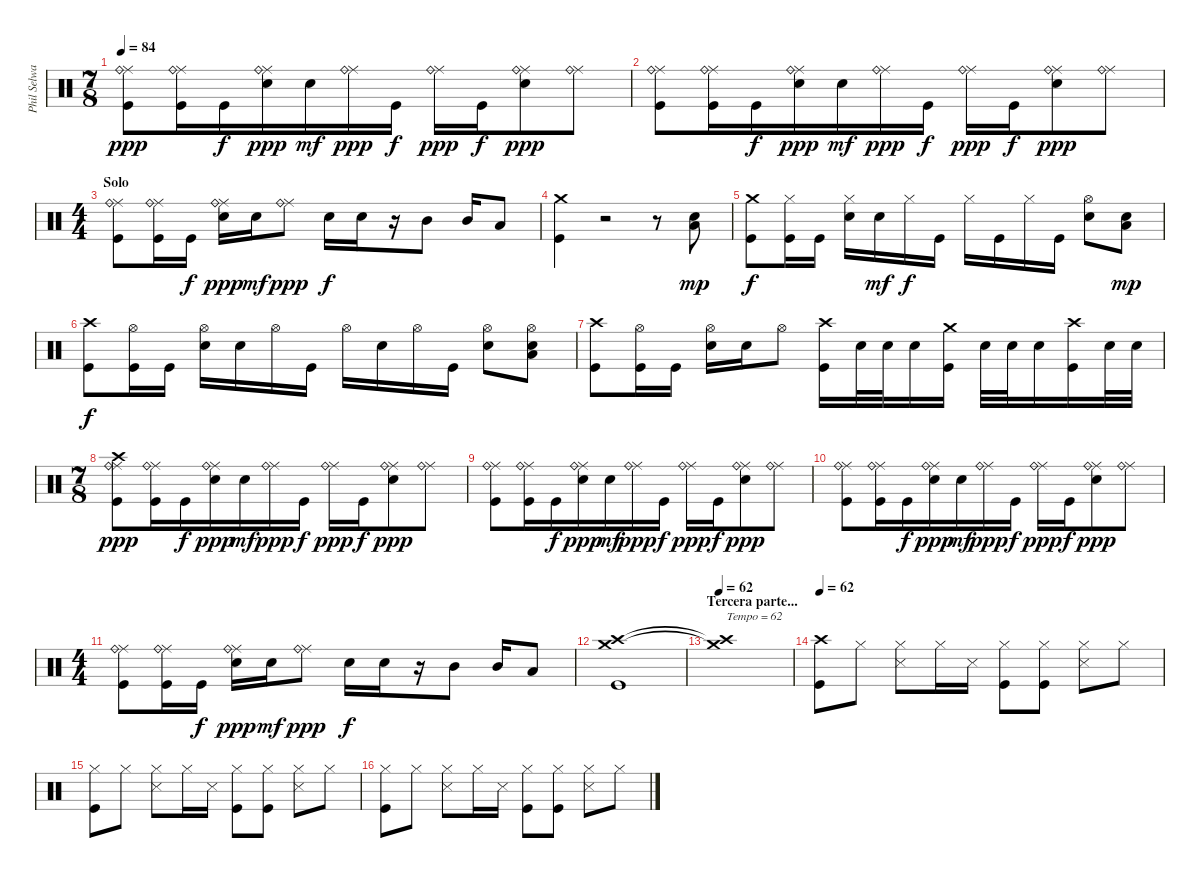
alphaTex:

\track ("Phil Selway" "Phil Selwa") {instrument percussion}
\staff {score}
\articulation defaults
\ts (7 8)
\tempo 84
\clef neutral
\ks c
("Ride (middle)" "Ride (bell)" "Kick (hit)").8{dy ppp} ("Ride (middle)" "Ride (bell)" "Kick (hit)").16 "Kick (hit)".16{dy f} ("Ride (middle)" "Ride (bell)" "Snare (hit) 2").16{dy ppp} "Snare (hit) 2".16{dy mf} ("Ride (middle)" "Ride (bell)").16{dy ppp} "Kick (hit)".16{dy f} ("Ride (middle)" "Ride (bell)").16{dy ppp} "Kick (hit)".16{dy f} ("Ride (middle)" "Ride (bell)" "Snare (hit) 2").8{dy ppp} ("Ride (middle)" "Ride (bell)").8 |
("Ride (middle)" "Ride (bell)" "Kick (hit)").8 ("Ride (middle)" "Ride (bell)" "Kick (hit)").16 "Kick (hit)".16{dy f} ("Ride (middle)" "Ride (bell)" "Snare (hit) 2").16{dy ppp} "Snare (hit) 2".16{dy mf} ("Ride (middle)" "Ride (bell)").16{dy ppp} "Kick (hit)".16{dy f} ("Ride (middle)" "Ride (bell)").16{dy ppp} "Kick (hit)".16{dy f} ("Ride (middle)" "Ride (bell)" "Snare (hit) 2").8{dy ppp} ("Ride (middle)" "Ride (bell)").8 |
\ts (4 4)
\section ("" "Solo")
("Ride (middle)" "Ride (bell)" "Kick (hit)").8 ("Ride (middle)" "Ride (bell)" "Kick (hit)").16 "Kick (hit)".16{dy f} ("Ride (middle)" "Ride (bell)" "Snare (hit) 2").16{dy ppp} "Snare (hit) 2".16{dy mf} ("Ride (middle)" "Ride (bell)").8{dy ppp} "Snare (hit) 2".16{dy f} "Snare (hit) 2".16 r.16 "Mid Tom (hit)".8 "Mid Tom (hit)".16 "Low Tom (hit)".8 |
("Crash medium (hit)" "Kick (hit)").4 r.2 r.8 ("Snare (hit) 2" "Low Tom (hit)").8{dy mp} |
("Crash medium (hit)" "Kick (hit)").8{dy f} ("Hi-Hat (closed)" "Kick (hit)").16 "Kick (hit)".16 ("Hi-Hat (closed)" "Snare (hit) 2").16 "Snare (hit) 2".16{dy mf} "Hi-Hat (closed)".16{dy f} "Kick (hit)".16 "Hi-Hat (closed)".16 "Kick (hit)".16 "Hi-Hat (closed)".16 "Kick (hit)".16 ("Hi-Hat (open)" "Snare (hit) 2").8 ("Snare (hit) 2" "Low Floor Tom (hit)").8{dy mp} |
("Crash high (hit)" "Kick (hit)").8{dy f} ("Hi-Hat (open)" "Kick (hit)").16 "Kick (hit)".16 ("Hi-Hat (open)" "Snare (hit) 2").16 "Snare (hit) 2".16 "Hi-Hat (open)".16 "Kick (hit)".16 "Hi-Hat (open)".16 "Snare (hit) 2".16 "Hi-Hat (open)".16 "Kick (hit)".16 ("Hi-Hat (open)" "Snare (hit) 2").8 ("Hi-Hat (open)" "Snare (hit) 2" "Low Floor Tom (hit)").8 |
("Crash high (hit)" "Kick (hit)").8 ("Hi-Hat (open)" "Kick (hit)").16 "Kick (hit)".16 ("Hi-Hat (open)" "Snare (hit) 2").16 "Snare (hit) 2".16 "Hi-Hat (open)".8 ("Crash high (hit)" "Kick (hit)").16 "Snare (hit) 2".32 "Snare (hit) 2".32 "Snare (hit) 2".16 ("Crash medium (hit)" "Kick (hit)").16 "Snare (hit) 2".32 "Snare (hit) 2".32 "Snare (hit) 2".16 ("Crash high (hit)" "Kick (hit)").16 "Snare (hit) 2".32 "Snare (hit) 2".32 |
\ts (7 8)
("Ride (middle)" "Ride (bell)" "Crash high (hit)" "Kick (hit)").8{dy ppp} ("Ride (middle)" "Ride (bell)" "Kick (hit)").16 "Kick (hit)".16{dy f} ("Ride (middle)" "Ride (bell)" "Snare (hit) 2").16{dy ppp} "Snare (hit) 2".16{dy mf} ("Ride (middle)" "Ride (bell)").16{dy ppp} "Kick (hit)".16{dy f} ("Ride (middle)" "Ride (bell)").16{dy ppp} "Kick (hit)".16{dy f} ("Ride (middle)" "Ride (bell)" "Snare (hit) 2").8{dy ppp} ("Ride (middle)" "Ride (bell)").8 |
("Ride (middle)" "Ride (bell)" "Kick (hit)").8 ("Ride (middle)" "Ride (bell)" "Kick (hit)").16 "Kick (hit)".16{dy f} ("Ride (middle)" "Ride (bell)" "Snare (hit) 2").16{dy ppp} "Snare (hit) 2".16{dy mf} ("Ride (middle)" "Ride (bell)").16{dy ppp} "Kick (hit)".16{dy f} ("Ride (middle)" "Ride (bell)").16{dy ppp} "Kick (hit)".16{dy f} ("Ride (middle)" "Ride (bell)" "Snare (hit) 2").8{dy ppp} ("Ride (middle)" "Ride (bell)").8 |
("Ride (middle)" "Ride (bell)" "Kick (hit)").8 ("Ride (middle)" "Ride (bell)" "Kick (hit)").16 "Kick (hit)".16{dy f} ("Ride (middle)" "Ride (bell)" "Snare (hit) 2").16{dy ppp} "Snare (hit) 2".16{dy mf} ("Ride (middle)" "Ride (bell)").16{dy ppp} "Kick (hit)".16{dy f} ("Ride (middle)" "Ride (bell)").16{dy ppp} "Kick (hit)".16{dy f} ("Ride (middle)" "Ride (bell)" "Snare (hit) 2").8{dy ppp} ("Ride (middle)" "Ride (bell)").8 |
\ts (4 4)
("Ride (middle)" "Ride (bell)" "Kick (hit)").8 ("Ride (middle)" "Ride (bell)" "Kick (hit)").16 "Kick (hit)".16{dy f} ("Ride (middle)" "Ride (bell)" "Snare (hit) 2").16{dy ppp} "Snare (hit) 2".16{dy mf} ("Ride (middle)" "Ride (bell)").8{dy ppp} "Snare (hit) 2".16{dy f} "Snare (hit) 2".16 r.16 "Mid Tom (hit)".8 "Mid Tom (hit)".16 "Low Tom (hit)".8 |
("Crash high (hit)" "Crash medium (hit)" "Kick (hit)").1 |
\section ("" "Tercera parte...")
\tempo 62
("Crash high (hit)"{t} "Crash medium (hit)"{t}).1{txt "Tempo = 62"} |
\tempo 62
("Crash high (hit)" "Kick (hit)").8 "Hi-Hat (closed)".8 ("Hi-Hat (closed)" "Snare (side stick) 3").8 "Hi-Hat (closed)".16 "Snare (side stick) 3".16 ("Hi-Hat (closed)" "Kick (hit)").8 ("Hi-Hat (closed)" "Kick (hit)").8 ("Hi-Hat (closed)" "Snare (side stick) 3").8 "Hi-Hat (closed)".8 |
("Hi-Hat (closed)" "Kick (hit)").8 "Hi-Hat (closed)".8 ("Hi-Hat (closed)" "Snare (side stick) 3").8 "Hi-Hat (closed)".16 "Snare (side stick) 3".16 ("Hi-Hat (closed)" "Kick (hit)").8 ("Hi-Hat (closed)" "Kick (hit)").8 ("Hi-Hat (closed)" "Snare (side stick) 3").8 "Hi-Hat (closed)".8 |
("Hi-Hat (closed)" "Kick (hit)").8 "Hi-Hat (closed)".8 ("Hi-Hat (closed)" "Snare (side stick) 3").8 "Hi-Hat (closed)".16 "Snare (side stick) 3".16 ("Hi-Hat (closed)" "Kick (hit)").8 ("Hi-Hat (closed)" "Kick (hit)").8 ("Hi-Hat (closed)" "Snare (side stick) 3").8 "Hi-Hat (closed)".8
